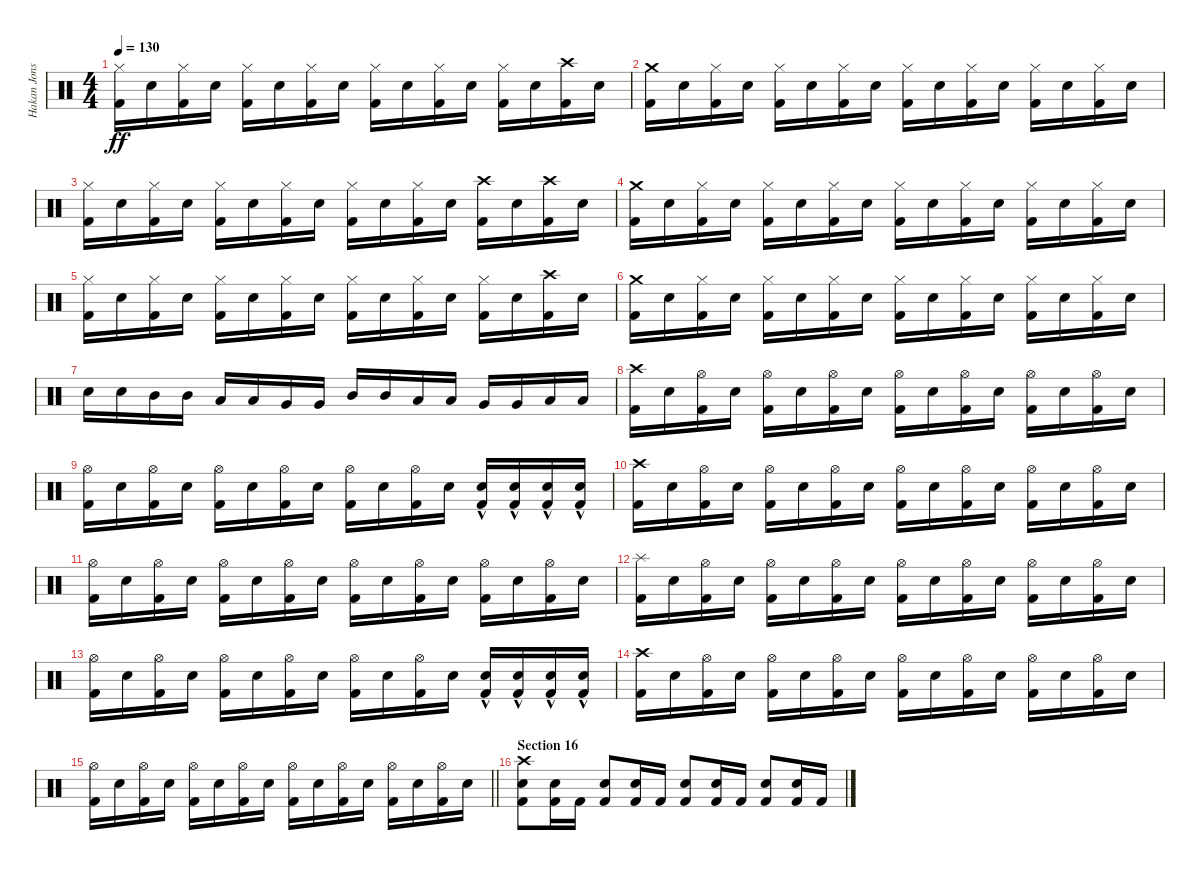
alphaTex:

\track ("Hakan Jonsson" "Hakan Jons") {instrument percussion}
\staff {score}
\articulation defaults
\ts (4 4)
\tempo 130
\clef neutral
\ks c
("Hi-Hat (closed)" "Kick (hit) 2").16{dy ff} "Electric Snare (hit)".16 ("Hi-Hat (closed)" "Kick (hit) 2").16 "Electric Snare (hit)".16 ("Hi-Hat (closed)" "Kick (hit) 2").16 "Electric Snare (hit)".16 ("Hi-Hat (closed)" "Kick (hit) 2").16 "Electric Snare (hit)".16 ("Hi-Hat (closed)" "Kick (hit) 2").16 "Electric Snare (hit)".16 ("Hi-Hat (closed)" "Kick (hit) 2").16 "Electric Snare (hit)".16 ("Hi-Hat (closed)" "Kick (hit) 2").16 "Electric Snare (hit)".16 ("Crash high (hit)" "Kick (hit) 2").16 "Electric Snare (hit)".16 |
("Crash medium (hit)" "Kick (hit) 2").16 "Electric Snare (hit)".16 ("Hi-Hat (closed)" "Kick (hit) 2").16 "Electric Snare (hit)".16 ("Hi-Hat (closed)" "Kick (hit) 2").16 "Electric Snare (hit)".16 ("Hi-Hat (closed)" "Kick (hit) 2").16 "Electric Snare (hit)".16 ("Hi-Hat (closed)" "Kick (hit) 2").16 "Electric Snare (hit)".16 ("Hi-Hat (closed)" "Kick (hit) 2").16 "Electric Snare (hit)".16 ("Hi-Hat (closed)" "Kick (hit) 2").16 "Electric Snare (hit)".16 ("Hi-Hat (closed)" "Kick (hit) 2").16 "Electric Snare (hit)".16 |
("Hi-Hat (closed)" "Kick (hit) 2").16 "Electric Snare (hit)".16 ("Hi-Hat (closed)" "Kick (hit) 2").16 "Electric Snare (hit)".16 ("Hi-Hat (closed)" "Kick (hit) 2").16 "Electric Snare (hit)".16 ("Hi-Hat (closed)" "Kick (hit) 2").16 "Electric Snare (hit)".16 ("Hi-Hat (closed)" "Kick (hit) 2").16 "Electric Snare (hit)".16 ("Hi-Hat (closed)" "Kick (hit) 2").16 "Electric Snare (hit)".16 ("Crash high (hit)" "Kick (hit) 2").16 "Electric Snare (hit)".16 ("Crash high (hit)" "Kick (hit) 2").16 "Electric Snare (hit)".16 |
("Crash medium (hit)" "Kick (hit) 2").16 "Electric Snare (hit)".16 ("Hi-Hat (closed)" "Kick (hit) 2").16 "Electric Snare (hit)".16 ("Hi-Hat (closed)" "Kick (hit) 2").16 "Electric Snare (hit)".16 ("Hi-Hat (closed)" "Kick (hit) 2").16 "Electric Snare (hit)".16 ("Hi-Hat (closed)" "Kick (hit) 2").16 "Electric Snare (hit)".16 ("Hi-Hat (closed)" "Kick (hit) 2").16 "Electric Snare (hit)".16 ("Hi-Hat (closed)" "Kick (hit) 2").16 "Electric Snare (hit)".16 ("Hi-Hat (closed)" "Kick (hit) 2").16 "Electric Snare (hit)".16 |
("Hi-Hat (closed)" "Kick (hit) 2").16 "Electric Snare (hit)".16 ("Hi-Hat (closed)" "Kick (hit) 2").16 "Electric Snare (hit)".16 ("Hi-Hat (closed)" "Kick (hit) 2").16 "Electric Snare (hit)".16 ("Hi-Hat (closed)" "Kick (hit) 2").16 "Electric Snare (hit)".16 ("Hi-Hat (closed)" "Kick (hit) 2").16 "Electric Snare (hit)".16 ("Hi-Hat (closed)" "Kick (hit) 2").16 "Electric Snare (hit)".16 ("Hi-Hat (closed)" "Kick (hit) 2").16 "Electric Snare (hit)".16 ("Crash high (hit)" "Kick (hit) 2").16 "Electric Snare (hit)".16 |
("Crash medium (hit)" "Kick (hit) 2").16 "Electric Snare (hit)".16 ("Hi-Hat (closed)" "Kick (hit) 2").16 "Electric Snare (hit)".16 ("Hi-Hat (closed)" "Kick (hit) 2").16 "Electric Snare (hit)".16 ("Hi-Hat (closed)" "Kick (hit) 2").16 "Electric Snare (hit)".16 ("Hi-Hat (closed)" "Kick (hit) 2").16 "Electric Snare (hit)".16 ("Hi-Hat (closed)" "Kick (hit) 2").16 "Electric Snare (hit)".16 ("Hi-Hat (closed)" "Kick (hit) 2").16 "Electric Snare (hit)".16 ("Hi-Hat (closed)" "Kick (hit) 2").16 "Electric Snare (hit)".16 |
"Electric Snare (hit)".16 "Electric Snare (hit)".16 "Mid Tom (hit)".16 "Mid Tom (hit)".16 "Low Tom (hit)".16 "Low Tom (hit)".16 "Very Low Tom (hit)".16 "Very Low Tom (hit)".16 "Mid Tom (hit)".16 "Mid Tom (hit)".16 "Low Tom (hit)".16 "Low Tom (hit)".16 "Very Low Tom (hit)".16 "Very Low Tom (hit)".16 "Low Floor Tom (hit)".16 "Low Floor Tom (hit)".16 |
("Crash high (hit)" "Kick (hit) 2").16 "Electric Snare (hit)".16 ("Hi-Hat (open)" "Kick (hit) 2").16 "Electric Snare (hit)".16 ("Hi-Hat (open)" "Kick (hit) 2").16 "Electric Snare (hit)".16 ("Hi-Hat (open)" "Kick (hit) 2").16 "Electric Snare (hit)".16 ("Hi-Hat (open)" "Kick (hit) 2").16 "Electric Snare (hit)".16 ("Hi-Hat (open)" "Kick (hit) 2").16 "Electric Snare (hit)".16 ("Hi-Hat (open)" "Kick (hit) 2").16 "Electric Snare (hit)".16 ("Hi-Hat (open)" "Kick (hit) 2").16 "Electric Snare (hit)".16 |
("Hi-Hat (open)" "Kick (hit) 2").16 "Electric Snare (hit)".16 ("Hi-Hat (open)" "Kick (hit) 2").16 "Electric Snare (hit)".16 ("Hi-Hat (open)" "Kick (hit) 2").16 "Electric Snare (hit)".16 ("Hi-Hat (open)" "Kick (hit) 2").16 "Electric Snare (hit)".16 ("Hi-Hat (open)" "Kick (hit) 2").16 "Electric Snare (hit)".16 ("Hi-Hat (open)" "Kick (hit) 2").16 "Electric Snare (hit)".16 ("Electric Snare (hit)"{hac} "Kick (hit) 2"{hac}).16 ("Electric Snare (hit)"{hac} "Kick (hit) 2"{hac}).16 ("Electric Snare (hit)"{hac} "Kick (hit) 2"{hac}).16 ("Electric Snare (hit)"{hac} "Kick (hit) 2"{hac}).16 |
("Crash high (hit)" "Kick (hit) 2").16 "Electric Snare (hit)".16 ("Hi-Hat (open)" "Kick (hit) 2").16 "Electric Snare (hit)".16 ("Hi-Hat (open)" "Kick (hit) 2").16 "Electric Snare (hit)".16 ("Hi-Hat (open)" "Kick (hit) 2").16 "Electric Snare (hit)".16 ("Hi-Hat (open)" "Kick (hit) 2").16 "Electric Snare (hit)".16 ("Hi-Hat (open)" "Kick (hit) 2").16 "Electric Snare (hit)".16 ("Hi-Hat (open)" "Kick (hit) 2").16 "Electric Snare (hit)".16 ("Hi-Hat (open)" "Kick (hit) 2").16 "Electric Snare (hit)".16 |
("Hi-Hat (open)" "Kick (hit) 2").16 "Electric Snare (hit)".16 ("Hi-Hat (open)" "Kick (hit) 2").16 "Electric Snare (hit)".16 ("Hi-Hat (open)" "Kick (hit) 2").16 "Electric Snare (hit)".16 ("Hi-Hat (open)" "Kick (hit) 2").16 "Electric Snare (hit)".16 ("Hi-Hat (open)" "Kick (hit) 2").16 "Electric Snare (hit)".16 ("Hi-Hat (open)" "Kick (hit) 2").16 "Electric Snare (hit)".16 ("Hi-Hat (open)" "Kick (hit) 2").16 "Electric Snare (hit)".16 ("Hi-Hat (open)" "Kick (hit) 2").16 "Electric Snare (hit)".16 |
("Splash (hit)" "Kick (hit) 2").16 "Electric Snare (hit)".16 ("Hi-Hat (open)" "Kick (hit) 2").16 "Electric Snare (hit)".16 ("Hi-Hat (open)" "Kick (hit) 2").16 "Electric Snare (hit)".16 ("Hi-Hat (open)" "Kick (hit) 2").16 "Electric Snare (hit)".16 ("Hi-Hat (open)" "Kick (hit) 2").16 "Electric Snare (hit)".16 ("Hi-Hat (open)" "Kick (hit) 2").16 "Electric Snare (hit)".16 ("Hi-Hat (open)" "Kick (hit) 2").16 "Electric Snare (hit)".16 ("Hi-Hat (open)" "Kick (hit) 2").16 "Electric Snare (hit)".16 |
("Hi-Hat (open)" "Kick (hit) 2").16 "Electric Snare (hit)".16 ("Hi-Hat (open)" "Kick (hit) 2").16 "Electric Snare (hit)".16 ("Hi-Hat (open)" "Kick (hit) 2").16 "Electric Snare (hit)".16 ("Hi-Hat (open)" "Kick (hit) 2").16 "Electric Snare (hit)".16 ("Hi-Hat (open)" "Kick (hit) 2").16 "Electric Snare (hit)".16 ("Hi-Hat (open)" "Kick (hit) 2").16 "Electric Snare (hit)".16 ("Electric Snare (hit)"{hac} "Kick (hit) 2"{hac}).16 ("Electric Snare (hit)"{hac} "Kick (hit) 2"{hac}).16 ("Electric Snare (hit)"{hac} "Kick (hit) 2"{hac}).16 ("Electric Snare (hit)"{hac} "Kick (hit) 2"{hac}).16 |
("Crash high (hit)" "Kick (hit) 2").16 "Electric Snare (hit)".16 ("Hi-Hat (open)" "Kick (hit) 2").16 "Electric Snare (hit)".16 ("Hi-Hat (open)" "Kick (hit) 2").16 "Electric Snare (hit)".16 ("Hi-Hat (open)" "Kick (hit) 2").16 "Electric Snare (hit)".16 ("Hi-Hat (open)" "Kick (hit) 2").16 "Electric Snare (hit)".16 ("Hi-Hat (open)" "Kick (hit) 2").16 "Electric Snare (hit)".16 ("Hi-Hat (open)" "Kick (hit) 2").16 "Electric Snare (hit)".16 ("Hi-Hat (open)" "Kick (hit) 2").16 "Electric Snare (hit)".16 |
\barLineRight lightlight
("Hi-Hat (open)" "Kick (hit) 2").16 "Electric Snare (hit)".16 ("Hi-Hat (open)" "Kick (hit) 2").16 "Electric Snare (hit)".16 ("Hi-Hat (open)" "Kick (hit) 2").16 "Electric Snare (hit)".16 ("Hi-Hat (open)" "Kick (hit) 2").16 "Electric Snare (hit)".16 ("Hi-Hat (open)" "Kick (hit) 2").16 "Electric Snare (hit)".16 ("Hi-Hat (open)" "Kick (hit) 2").16 "Electric Snare (hit)".16 ("Hi-Hat (open)" "Kick (hit) 2").16 "Electric Snare (hit)".16 ("Hi-Hat (open)" "Kick (hit) 2").16 "Electric Snare (hit)".16 |
\section ("" "Section 16")
("Crash high (hit)" "Electric Snare (hit)" "Kick (hit) 2").8 ("Electric Snare (hit)" "Kick (hit) 2").16 "Kick (hit) 2".16 ("Electric Snare (hit)" "Kick (hit) 2").8 ("Electric Snare (hit)" "Kick (hit) 2").16 "Kick (hit) 2".16 ("Electric Snare (hit)" "Kick (hit) 2").8 ("Electric Snare (hit)" "Kick (hit) 2").16 "Kick (hit) 2".16 ("Electric Snare (hit)" "Kick (hit) 2").8 ("Electric Snare (hit)" "Kick (hit) 2").16 "Kick (hit) 2".16
